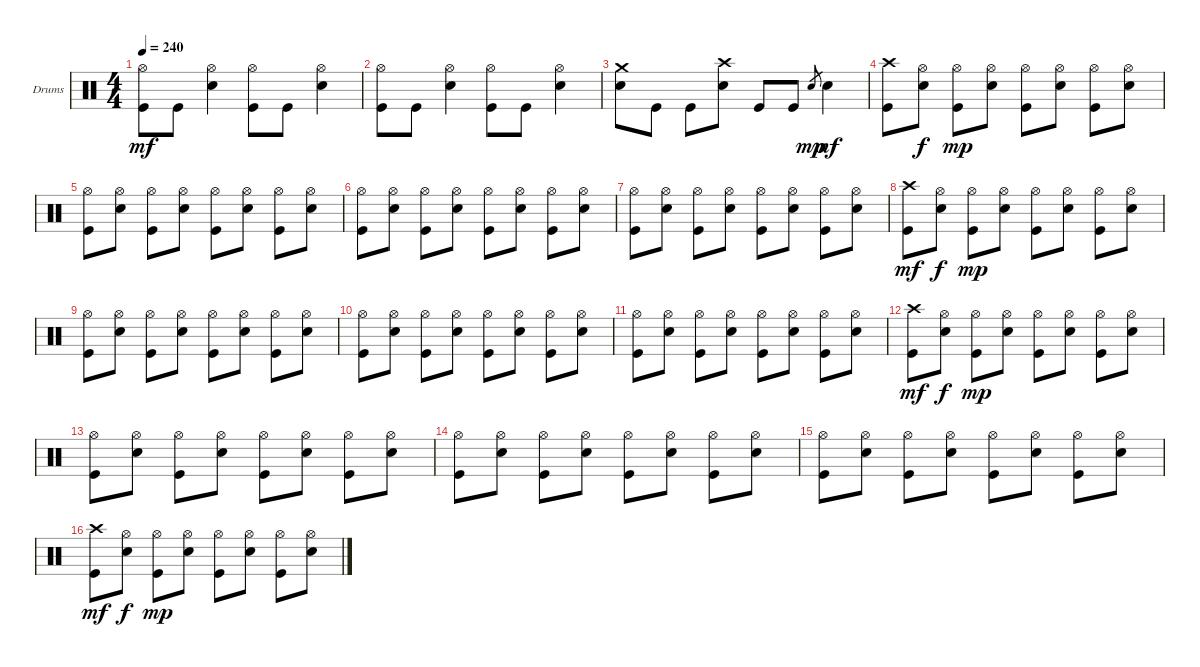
\bracketExtendMode groupsimilarinstruments
\firstSystemTrackNameOrientation horizontal
\otherSystemsTrackNameOrientation horizontal
\track ("Drumkit" "Drums") {instrument percussion}
\staff {score}
\articulation defaults
\ts (4 4)
\tempo 240
\clef neutral
\ks c
("Hi-Hat (open)" "Kick (hit)").8{dy mf} "Kick (hit)".8 ("Hi-Hat (open)" "Snare (hit) 2").4 ("Hi-Hat (open)" "Kick (hit)").8 "Kick (hit)".8 ("Hi-Hat (open)" "Snare (hit) 2").4 |
("Hi-Hat (open)" "Kick (hit)").8 "Kick (hit)".8 ("Hi-Hat (open)" "Snare (hit) 2").4 ("Hi-Hat (open)" "Kick (hit)").8 "Kick (hit)".8 ("Hi-Hat (open)" "Snare (hit) 2").4 |
("Crash medium (hit)" "Snare (hit) 2").8 "Kick (hit)".8 "Kick (hit)".8 ("Crash high (hit)" "Snare (hit) 2").8 "Kick (hit)".8 "Kick (hit)".8 "Snare (hit) 2".8{gr dy mp} "Snare (hit) 2".4{dy mf} |
("Crash high (hit)" "Kick (hit)").8 ("Hi-Hat (open)" "Snare (hit) 2").8{dy f} ("Hi-Hat (open)" "Kick (hit)").8{dy mp} ("Hi-Hat (open)" "Snare (hit) 2").8 ("Hi-Hat (open)" "Kick (hit)").8 ("Hi-Hat (open)" "Snare (hit) 2").8 ("Hi-Hat (open)" "Kick (hit)").8 ("Hi-Hat (open)" "Snare (hit) 2").8 |
("Hi-Hat (open)" "Kick (hit)").8 ("Hi-Hat (open)" "Snare (hit) 2").8 ("Hi-Hat (open)" "Kick (hit)").8 ("Hi-Hat (open)" "Snare (hit) 2").8 ("Hi-Hat (open)" "Kick (hit)").8 ("Hi-Hat (open)" "Snare (hit) 2").8 ("Hi-Hat (open)" "Kick (hit)").8 ("Hi-Hat (open)" "Snare (hit) 2").8 |
("Hi-Hat (open)" "Kick (hit)").8 ("Hi-Hat (open)" "Snare (hit) 2").8 ("Hi-Hat (open)" "Kick (hit)").8 ("Hi-Hat (open)" "Snare (hit) 2").8 ("Hi-Hat (open)" "Kick (hit)").8 ("Hi-Hat (open)" "Snare (hit) 2").8 ("Hi-Hat (open)" "Kick (hit)").8 ("Hi-Hat (open)" "Snare (hit) 2").8 |
("Hi-Hat (open)" "Kick (hit)").8 ("Hi-Hat (open)" "Snare (hit) 2").8 ("Hi-Hat (open)" "Kick (hit)").8 ("Hi-Hat (open)" "Snare (hit) 2").8 ("Hi-Hat (open)" "Kick (hit)").8 ("Hi-Hat (open)" "Snare (hit) 2").8 ("Hi-Hat (open)" "Kick (hit)").8 ("Hi-Hat (open)" "Snare (hit) 2").8 |
("Crash high (hit)" "Kick (hit)").8{dy mf} ("Hi-Hat (open)" "Snare (hit) 2").8{dy f} ("Hi-Hat (open)" "Kick (hit)").8{dy mp} ("Hi-Hat (open)" "Snare (hit) 2").8 ("Hi-Hat (open)" "Kick (hit)").8 ("Hi-Hat (open)" "Snare (hit) 2").8 ("Hi-Hat (open)" "Kick (hit)").8 ("Hi-Hat (open)" "Snare (hit) 2").8 |
("Hi-Hat (open)" "Kick (hit)").8 ("Hi-Hat (open)" "Snare (hit) 2").8 ("Hi-Hat (open)" "Kick (hit)").8 ("Hi-Hat (open)" "Snare (hit) 2").8 ("Hi-Hat (open)" "Kick (hit)").8 ("Hi-Hat (open)" "Snare (hit) 2").8 ("Hi-Hat (open)" "Kick (hit)").8 ("Hi-Hat (open)" "Snare (hit) 2").8 |
("Hi-Hat (open)" "Kick (hit)").8 ("Hi-Hat (open)" "Snare (hit) 2").8 ("Hi-Hat (open)" "Kick (hit)").8 ("Hi-Hat (open)" "Snare (hit) 2").8 ("Hi-Hat (open)" "Kick (hit)").8 ("Hi-Hat (open)" "Snare (hit) 2").8 ("Hi-Hat (open)" "Kick (hit)").8 ("Hi-Hat (open)" "Snare (hit) 2").8 |
("Hi-Hat (open)" "Kick (hit)").8 ("Hi-Hat (open)" "Snare (hit) 2").8 ("Hi-Hat (open)" "Kick (hit)").8 ("Hi-Hat (open)" "Snare (hit) 2").8 ("Hi-Hat (open)" "Kick (hit)").8 ("Hi-Hat (open)" "Snare (hit) 2").8 ("Hi-Hat (open)" "Kick (hit)").8 ("Hi-Hat (open)" "Snare (hit) 2").8 |
("Crash high (hit)" "Kick (hit)").8{dy mf} ("Hi-Hat (open)" "Snare (hit) 2").8{dy f} ("Hi-Hat (open)" "Kick (hit)").8{dy mp} ("Hi-Hat (open)" "Snare (hit) 2").8 ("Hi-Hat (open)" "Kick (hit)").8 ("Hi-Hat (open)" "Snare (hit) 2").8 ("Hi-Hat (open)" "Kick (hit)").8 ("Hi-Hat (open)" "Snare (hit) 2").8 |
("Hi-Hat (open)" "Kick (hit)").8 ("Hi-Hat (open)" "Snare (hit) 2").8 ("Hi-Hat (open)" "Kick (hit)").8 ("Hi-Hat (open)" "Snare (hit) 2").8 ("Hi-Hat (open)" "Kick (hit)").8 ("Hi-Hat (open)" "Snare (hit) 2").8 ("Hi-Hat (open)" "Kick (hit)").8 ("Hi-Hat (open)" "Snare (hit) 2").8 |
("Hi-Hat (open)" "Kick (hit)").8 ("Hi-Hat (open)" "Snare (hit) 2").8 ("Hi-Hat (open)" "Kick (hit)").8 ("Hi-Hat (open)" "Snare (hit) 2").8 ("Hi-Hat (open)" "Kick (hit)").8 ("Hi-Hat (open)" "Snare (hit) 2").8 ("Hi-Hat (open)" "Kick (hit)").8 ("Hi-Hat (open)" "Snare (hit) 2").8 |
("Hi-Hat (open)" "Kick (hit)").8 ("Hi-Hat (open)" "Snare (hit) 2").8 ("Hi-Hat (open)" "Kick (hit)").8 ("Hi-Hat (open)" "Snare (hit) 2").8 ("Hi-Hat (open)" "Kick (hit)").8 ("Hi-Hat (open)" "Snare (hit) 2").8 ("Hi-Hat (open)" "Kick (hit)").8 ("Hi-Hat (open)" "Snare (hit) 2").8 |
("Crash high (hit)" "Kick (hit)").8{dy mf} ("Hi-Hat (open)" "Snare (hit) 2").8{dy f} ("Hi-Hat (open)" "Kick (hit)").8{dy mp} ("Hi-Hat (open)" "Snare (hit) 2").8 ("Hi-Hat (open)" "Kick (hit)").8 ("Hi-Hat (open)" "Snare (hit) 2").8 ("Hi-Hat (open)" "Kick (hit)").8 ("Hi-Hat (open)" "Snare (hit) 2").8
